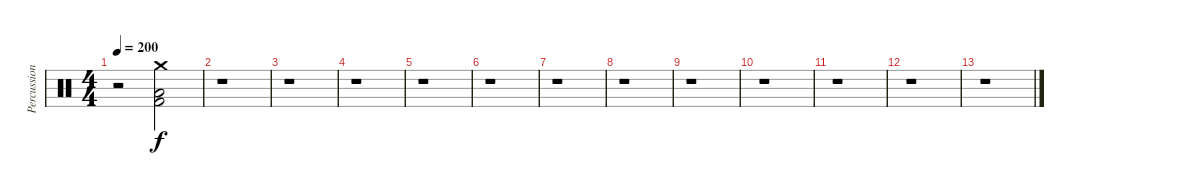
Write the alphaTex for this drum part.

\track ("Percussion" "Percussion") {instrument percussion}
\staff {score}
\articulation defaults
\ts (4 4)
\tempo 200
\clef neutral
\ks c
r.2{dy f} ("Crash medium (hit)" "Low Tom (hit)" "Kick (hit) 2").2 |
r.1 |
r.1 |
r.1 |
r.1 |
r.1 |
r.1 |
r.1 |
r.1 |
r.1 |
r.1 |
r.1 |
r.1
